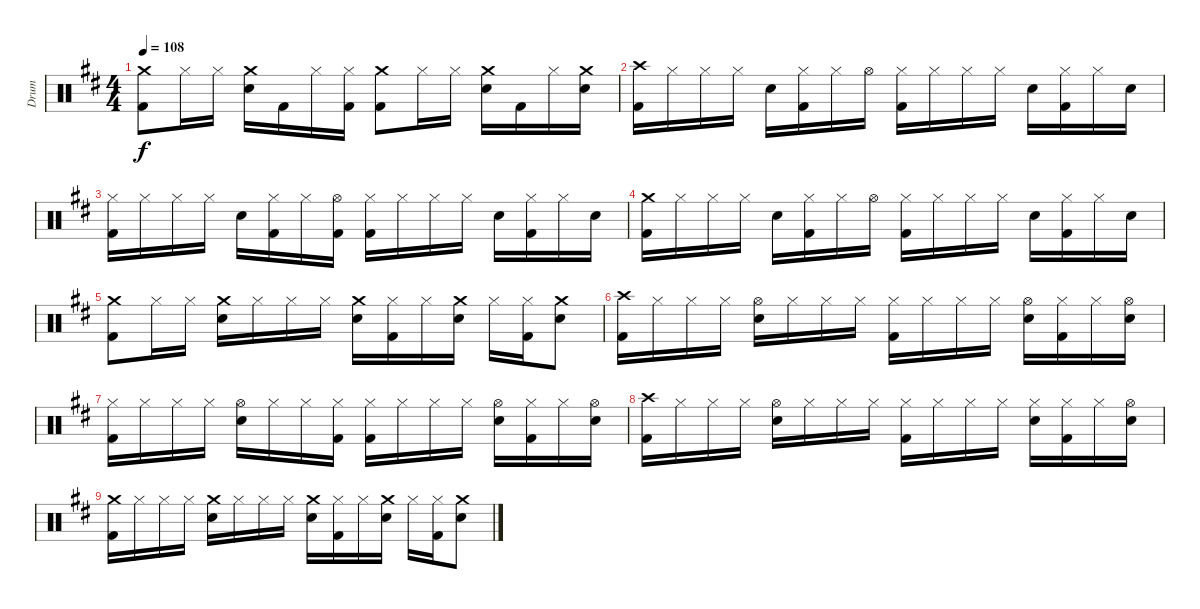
\track ("Drum" "Drum") {instrument percussion}
\staff {score}
\articulation defaults
\ts (4 4)
\tempo 108
\clef neutral
\ks d
("Crash medium (hit)" "Kick (hit) 2").8{dy f} "Hi-Hat (closed)".16 "Hi-Hat (closed)".16 ("Crash medium (hit)" "Snare (hit) 2").16 "Kick (hit) 2".16 "Hi-Hat (closed)".16 ("Hi-Hat (closed)" "Kick (hit) 2").16 ("Crash medium (hit)" "Kick (hit) 2").8 "Hi-Hat (closed)".16 "Hi-Hat (closed)".16 ("Crash medium (hit)" "Snare (hit) 2").16 "Kick (hit) 2".16 "Hi-Hat (closed)".16 ("Crash medium (hit)" "Snare (hit) 2").16 |
("Crash high (hit)" "Kick (hit) 2").16 "Hi-Hat (closed)".16 "Hi-Hat (closed)".16 "Hi-Hat (closed)".16 "Snare (hit) 2".16 ("Hi-Hat (closed)" "Kick (hit) 2").16 "Hi-Hat (closed)".16 "Hi-Hat (open)".16 ("Hi-Hat (closed)" "Kick (hit) 2").16 "Hi-Hat (closed)".16 "Hi-Hat (closed)".16 "Hi-Hat (closed)".16 "Snare (hit) 2".16 ("Hi-Hat (closed)" "Kick (hit) 2").16 "Hi-Hat (closed)".16 "Snare (hit) 2".16 |
("Hi-Hat (closed)" "Kick (hit) 2").16 "Hi-Hat (closed)".16 "Hi-Hat (closed)".16 "Hi-Hat (closed)".16 "Snare (hit) 2".16 ("Hi-Hat (closed)" "Kick (hit) 2").16 "Hi-Hat (closed)".16 ("Hi-Hat (open)" "Kick (hit) 2").16 ("Hi-Hat (closed)" "Kick (hit) 2").16 "Hi-Hat (closed)".16 "Hi-Hat (closed)".16 "Hi-Hat (closed)".16 "Snare (hit) 2".16 ("Hi-Hat (closed)" "Kick (hit) 2").16 "Hi-Hat (closed)".16 "Snare (hit) 2".16 |
("Crash medium (hit)" "Kick (hit) 2").16 "Hi-Hat (closed)".16 "Hi-Hat (closed)".16 "Hi-Hat (closed)".16 "Snare (hit) 2".16 ("Hi-Hat (closed)" "Kick (hit) 2").16 "Hi-Hat (closed)".16 "Hi-Hat (open)".16 ("Hi-Hat (closed)" "Kick (hit) 2").16 "Hi-Hat (closed)".16 "Hi-Hat (closed)".16 "Hi-Hat (closed)".16 "Snare (hit) 2".16 ("Hi-Hat (closed)" "Kick (hit) 2").16 "Hi-Hat (closed)".16 "Snare (hit) 2".16 |
("Crash medium (hit)" "Kick (hit) 2").8 "Hi-Hat (closed)".16 "Hi-Hat (closed)".16 ("Crash medium (hit)" "Snare (hit) 2").16 "Hi-Hat (closed)".16 "Hi-Hat (closed)".16 "Hi-Hat (closed)".16 ("Crash medium (hit)" "Snare (hit) 2").16 ("Hi-Hat (closed)" "Kick (hit) 2").16 "Hi-Hat (closed)".16 ("Crash medium (hit)" "Snare (hit) 2").16 "Hi-Hat (closed)".16 ("Hi-Hat (closed)" "Kick (hit) 2").16 ("Crash medium (hit)" "Snare (hit) 2").8 |
("Crash high (hit)" "Kick (hit) 2").16 "Hi-Hat (closed)".16 "Hi-Hat (closed)".16 "Hi-Hat (closed)".16 ("Hi-Hat (open)" "Snare (hit) 2").16 "Hi-Hat (closed)".16 "Hi-Hat (closed)".16 "Hi-Hat (closed)".16 ("Hi-Hat (closed)" "Kick (hit) 2").16 "Hi-Hat (closed)".16 "Hi-Hat (closed)".16 "Hi-Hat (closed)".16 ("Hi-Hat (open)" "Snare (hit) 2").16 ("Hi-Hat (closed)" "Kick (hit) 2").16 "Hi-Hat (closed)".16 ("Hi-Hat (open)" "Snare (hit) 2").16 |
("Hi-Hat (closed)" "Kick (hit) 2").16 "Hi-Hat (closed)".16 "Hi-Hat (closed)".16 "Hi-Hat (closed)".16 ("Hi-Hat (open)" "Snare (hit) 2").16 "Hi-Hat (closed)".16 "Hi-Hat (closed)".16 ("Hi-Hat (closed)" "Kick (hit) 2").16 ("Hi-Hat (closed)" "Kick (hit) 2").16 "Hi-Hat (closed)".16 "Hi-Hat (closed)".16 "Hi-Hat (closed)".16 ("Hi-Hat (open)" "Snare (hit) 2").16 ("Hi-Hat (closed)" "Kick (hit) 2").16 "Hi-Hat (closed)".16 ("Hi-Hat (open)" "Snare (hit) 2").16 |
("Crash high (hit)" "Kick (hit) 2").16 "Hi-Hat (closed)".16 "Hi-Hat (closed)".16 "Hi-Hat (closed)".16 ("Hi-Hat (open)" "Snare (hit) 2").16 "Hi-Hat (closed)".16 "Hi-Hat (closed)".16 "Hi-Hat (closed)".16 ("Hi-Hat (closed)" "Kick (hit) 2").16 "Hi-Hat (closed)".16 "Hi-Hat (closed)".16 "Hi-Hat (closed)".16 ("Hi-Hat (closed)" "Snare (hit) 2").16 ("Hi-Hat (closed)" "Kick (hit) 2").16 "Hi-Hat (closed)".16 ("Hi-Hat (open)" "Snare (hit) 2").16 |
("Crash medium (hit)" "Kick (hit) 2").16 "Hi-Hat (closed)".16 "Hi-Hat (closed)".16 "Hi-Hat (closed)".16 ("Crash medium (hit)" "Snare (hit) 2").16 "Hi-Hat (closed)".16 "Hi-Hat (closed)".16 "Hi-Hat (closed)".16 ("Crash medium (hit)" "Snare (hit) 2").16 ("Hi-Hat (closed)" "Kick (hit) 2").16 "Hi-Hat (closed)".16 ("Crash medium (hit)" "Snare (hit) 2").16 "Hi-Hat (closed)".16 ("Hi-Hat (closed)" "Kick (hit) 2").16 ("Crash medium (hit)" "Snare (hit) 2").8
